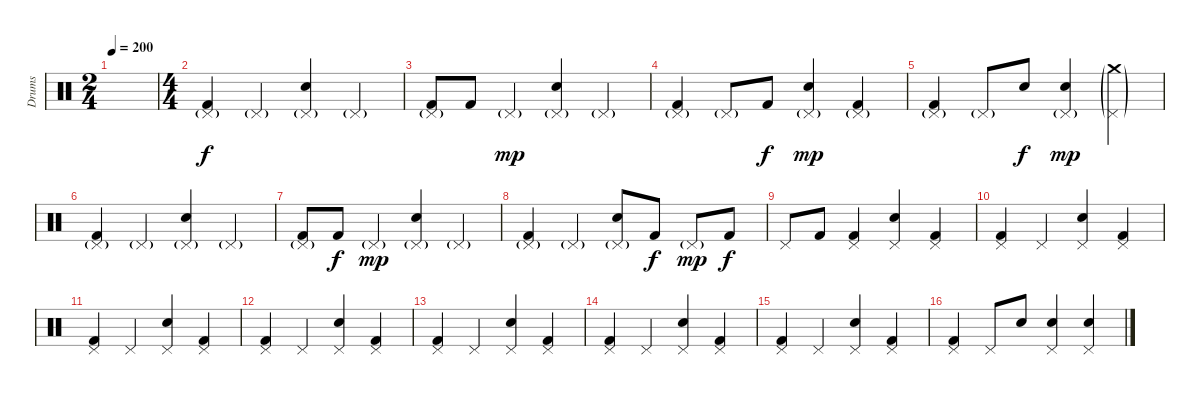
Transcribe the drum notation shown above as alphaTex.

\track ("Drums" "Drums") {instrument percussion}
\staff {score}
\articulation defaults
\ts (2 4)
\tempo 200
\clef neutral
\ks c
|
\ts (4 4)
("Pedal Hi-Hat (hit)"{g} "Kick (hit) 2").4 "Pedal Hi-Hat (hit)"{g}.4 ("Pedal Hi-Hat (hit)"{g} "Snare (hit) 2").4 "Pedal Hi-Hat (hit)"{g}.4 |
("Pedal Hi-Hat (hit)"{g} "Kick (hit) 2").8 "Kick (hit) 2".8{dy f} "Pedal Hi-Hat (hit)"{g}.4{dy mp} ("Pedal Hi-Hat (hit)"{g} "Snare (hit) 2").4 "Pedal Hi-Hat (hit)"{g}.4 |
("Pedal Hi-Hat (hit)"{g} "Kick (hit) 2").4 "Pedal Hi-Hat (hit)"{g}.8 "Kick (hit) 2".8{dy f} ("Pedal Hi-Hat (hit)"{g} "Snare (hit) 2").4{dy mp} ("Pedal Hi-Hat (hit)"{g} "Kick (hit) 2").4 |
("Pedal Hi-Hat (hit)"{g} "Kick (hit) 2").4 "Pedal Hi-Hat (hit)"{g}.8 "Snare (hit) 2".8{dy f} ("Pedal Hi-Hat (hit)"{g} "Snare (hit) 2").4{dy mp} ("Pedal Hi-Hat (hit)"{g} "Crash medium (hit)"{g}).4 |
("Pedal Hi-Hat (hit)"{g} "Kick (hit) 2").4 "Pedal Hi-Hat (hit)"{g}.4 ("Pedal Hi-Hat (hit)"{g} "Snare (hit) 2").4 "Pedal Hi-Hat (hit)"{g}.4 |
("Pedal Hi-Hat (hit)"{g} "Kick (hit) 2").8 "Kick (hit) 2".8{dy f} "Pedal Hi-Hat (hit)"{g}.4{dy mp} ("Pedal Hi-Hat (hit)"{g} "Snare (hit) 2").4 "Pedal Hi-Hat (hit)"{g}.4 |
("Pedal Hi-Hat (hit)"{g} "Kick (hit) 2").4 "Pedal Hi-Hat (hit)"{g}.4 ("Pedal Hi-Hat (hit)"{g} "Snare (hit) 2").8 "Kick (hit) 2".8{dy f} "Pedal Hi-Hat (hit)"{g}.8{dy mp} "Kick (hit) 2".8{dy f} |
"Pedal Hi-Hat (hit)".8 "Kick (hit) 2".8 ("Pedal Hi-Hat (hit)" "Kick (hit) 2").4 ("Pedal Hi-Hat (hit)" "Snare (hit) 2").4 ("Pedal Hi-Hat (hit)" "Kick (hit) 2").4 |
("Pedal Hi-Hat (hit)" "Kick (hit) 2").4 "Pedal Hi-Hat (hit)".4 ("Pedal Hi-Hat (hit)" "Snare (hit) 2").4 ("Pedal Hi-Hat (hit)" "Kick (hit) 2").4 |
("Pedal Hi-Hat (hit)" "Kick (hit) 2").4 "Pedal Hi-Hat (hit)".4 ("Pedal Hi-Hat (hit)" "Snare (hit) 2").4 ("Pedal Hi-Hat (hit)" "Kick (hit) 2").4 |
("Pedal Hi-Hat (hit)" "Kick (hit) 2").4 "Pedal Hi-Hat (hit)".4 ("Pedal Hi-Hat (hit)" "Snare (hit) 2").4 ("Pedal Hi-Hat (hit)" "Kick (hit) 2").4 |
("Pedal Hi-Hat (hit)" "Kick (hit) 2").4 "Pedal Hi-Hat (hit)".4 ("Pedal Hi-Hat (hit)" "Snare (hit) 2").4 ("Pedal Hi-Hat (hit)" "Kick (hit) 2").4 |
("Pedal Hi-Hat (hit)" "Kick (hit) 2").4 "Pedal Hi-Hat (hit)".4 ("Pedal Hi-Hat (hit)" "Snare (hit) 2").4 ("Pedal Hi-Hat (hit)" "Kick (hit) 2").4 |
("Pedal Hi-Hat (hit)" "Kick (hit) 2").4 "Pedal Hi-Hat (hit)".4 ("Pedal Hi-Hat (hit)" "Snare (hit) 2").4 ("Pedal Hi-Hat (hit)" "Kick (hit) 2").4 |
("Pedal Hi-Hat (hit)" "Kick (hit) 2").4 "Pedal Hi-Hat (hit)".8 "Snare (hit) 2".8 ("Pedal Hi-Hat (hit)" "Snare (hit) 2").4 ("Pedal Hi-Hat (hit)" "Snare (hit) 2").4
